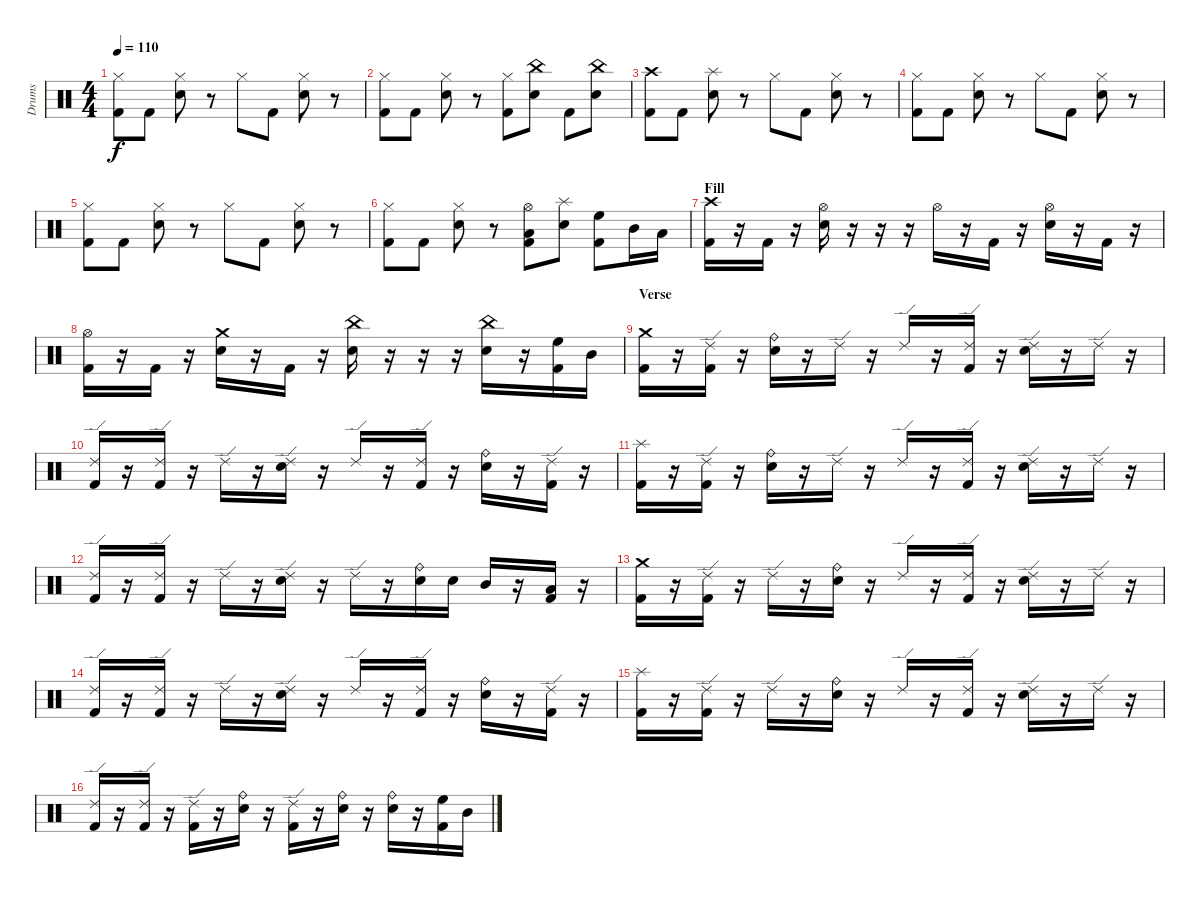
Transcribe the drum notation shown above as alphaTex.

\track ("Drums" "Drums") {instrument percussion}
\staff {score}
\articulation defaults
\ts (4 4)
\tempo 110
\clef neutral
\ks c
("Hi-Hat (closed)" "Kick (hit) 2").8{dy f} "Kick (hit) 2".8 ("Hi-Hat (closed)" "Electric Snare (hit)").8 r.8 "Hi-Hat (closed)".8 "Kick (hit) 2".8 ("Hi-Hat (closed)" "Electric Snare (hit)").8 r.8 |
("Hi-Hat (closed)" "Kick (hit) 2").8 "Kick (hit) 2".8 ("Hi-Hat (closed)" "Electric Snare (hit)").8 r.8 ("Hi-Hat (closed)" "Kick (hit) 2").8 ("China (hit)" "Electric Snare (hit)").8 "Kick (hit) 2".8 ("China (hit)" "Electric Snare (hit)").8 |
("Crash high (hit)" "Kick (hit) 2").8 "Kick (hit) 2".8 ("Splash (hit)" "Electric Snare (hit)").8 r.8 "Hi-Hat (closed)".8 "Kick (hit) 2".8 ("Hi-Hat (closed)" "Electric Snare (hit)").8 r.8 |
("Hi-Hat (closed)" "Kick (hit) 2").8 "Kick (hit) 2".8 ("Hi-Hat (closed)" "Electric Snare (hit)").8 r.8 "Hi-Hat (closed)".8 "Kick (hit) 2".8 ("Hi-Hat (closed)" "Electric Snare (hit)").8 r.8 |
("Hi-Hat (closed)" "Kick (hit) 2").8 "Kick (hit) 2".8 ("Hi-Hat (closed)" "Electric Snare (hit)").8 r.8 "Hi-Hat (closed)".8 "Kick (hit) 2".8 ("Hi-Hat (closed)" "Electric Snare (hit)").8 r.8 |
("Hi-Hat (closed)" "Kick (hit) 2").8 "Kick (hit) 2".8 ("Hi-Hat (closed)" "Electric Snare (hit)").8 r.8 ("Hi-Hat (open)" "Low Tom (hit)" "Kick (hit) 2").8 ("Splash (hit)" "Electric Snare (hit)").8 ("High Floor Tom (hit)" "Kick (hit) 2").8 "Mid Tom (hit)".16 "Low Tom (hit)".16 |
\section ("" "Fill")
("Crash high (hit)" "Kick (hit) 2").16 r.16 "Kick (hit) 2".16 r.16 ("Hi-Hat (open)" "Electric Snare (hit)").16 r.16 r.16 r.16 "Hi-Hat (open)".16 r.16 "Kick (hit) 2".16 r.16 ("Hi-Hat (open)" "Electric Snare (hit)").16 r.16 "Kick (hit) 2".16 r.16 |
("Hi-Hat (open)" "Kick (hit) 2").16 r.16 "Kick (hit) 2".16 r.16 ("Crash medium (hit)" "Electric Snare (hit)").16 r.16 "Kick (hit) 2".16 r.16 ("China (hit)" "Electric Snare (hit)").16 r.16 r.16 r.16 ("China (hit)" "Electric Snare (hit)").16 r.16 ("High Floor Tom (hit)" "Kick (hit) 2").16 "Mid Tom (hit)".16 |
\section ("" "Verse")
("Crash medium (hit)" "Kick (hit) 2").16 r.16 ("Ride (edge) 2" "Kick (hit) 2").16 r.16 ("Ride (bell)" "Electric Snare (hit)").16 r.16 "Ride (edge) 2".16 r.16 "Ride (edge) 2".16 r.16 ("Ride (edge) 2" "Kick (hit) 2").16 r.16 ("Ride (edge) 2" "Electric Snare (hit)").16 r.16 "Ride (edge) 2".16 r.16 |
("Ride (edge) 2" "Kick (hit) 2").16 r.16 ("Ride (edge) 2" "Kick (hit) 2").16 r.16 "Ride (edge) 2".16 r.16 ("Ride (edge) 2" "Electric Snare (hit)").16 r.16 "Ride (edge) 2".16 r.16 ("Ride (edge) 2" "Kick (hit) 2").16 r.16 ("Ride (bell)" "Electric Snare (hit)").16 r.16 ("Ride (edge) 2" "Kick (hit) 2").16 r.16 |
("Splash (hit)" "Kick (hit) 2").16 r.16 ("Ride (edge) 2" "Kick (hit) 2").16 r.16 ("Ride (bell)" "Electric Snare (hit)").16 r.16 "Ride (edge) 2".16 r.16 "Ride (edge) 2".16 r.16 ("Ride (edge) 2" "Kick (hit) 2").16 r.16 ("Ride (edge) 2" "Electric Snare (hit)").16 r.16 "Ride (edge) 2".16 r.16 |
("Ride (edge) 2" "Kick (hit) 2").16 r.16 ("Ride (edge) 2" "Kick (hit) 2").16 r.16 "Ride (edge) 2".16 r.16 ("Ride (edge) 2" "Electric Snare (hit)").16 r.16 "Ride (edge) 2".16 r.16 ("Ride (bell)" "Electric Snare (hit)").16 "Electric Snare (hit)".16 "Mid Tom (hit)".16 r.16 ("Low Tom (hit)" "Kick (hit) 2").16 r.16 |
("Crash medium (hit)" "Kick (hit) 2").16 r.16 ("Ride (edge) 2" "Kick (hit) 2").16 r.16 "Ride (edge) 2".16 r.16 ("Ride (bell)" "Electric Snare (hit)").16 r.16 "Ride (edge) 2".16 r.16 ("Ride (edge) 2" "Kick (hit) 2").16 r.16 ("Ride (edge) 2" "Electric Snare (hit)").16 r.16 "Ride (edge) 2".16 r.16 |
("Ride (edge) 2" "Kick (hit) 2").16 r.16 ("Ride (edge) 2" "Kick (hit) 2").16 r.16 "Ride (edge) 2".16 r.16 ("Ride (edge) 2" "Electric Snare (hit)").16 r.16 "Ride (edge) 2".16 r.16 ("Ride (edge) 2" "Kick (hit) 2").16 r.16 ("Ride (bell)" "Electric Snare (hit)").16 r.16 ("Ride (edge) 2" "Kick (hit) 2").16 r.16 |
("Splash (hit)" "Kick (hit) 2").16 r.16 ("Ride (edge) 2" "Kick (hit) 2").16 r.16 "Ride (edge) 2".16 r.16 ("Ride (bell)" "Electric Snare (hit)").16 r.16 "Ride (edge) 2".16 r.16 ("Ride (edge) 2" "Kick (hit) 2").16 r.16 ("Ride (edge) 2" "Electric Snare (hit)").16 r.16 "Ride (edge) 2".16 r.16 |
("Ride (edge) 2" "Kick (hit) 2").16 r.16 ("Ride (edge) 2" "Kick (hit) 2").16 r.16 ("Ride (edge) 2" "Kick (hit) 2").16 r.16 ("Ride (bell)" "Electric Snare (hit)").16 r.16 ("Ride (edge) 2" "Kick (hit) 2").16 r.16 ("Ride (bell)" "Electric Snare (hit)").16 r.16 ("Ride (bell)" "Electric Snare (hit)").16 r.16 ("High Floor Tom (hit)" "Kick (hit) 2").16 "Mid Tom (hit)".16
